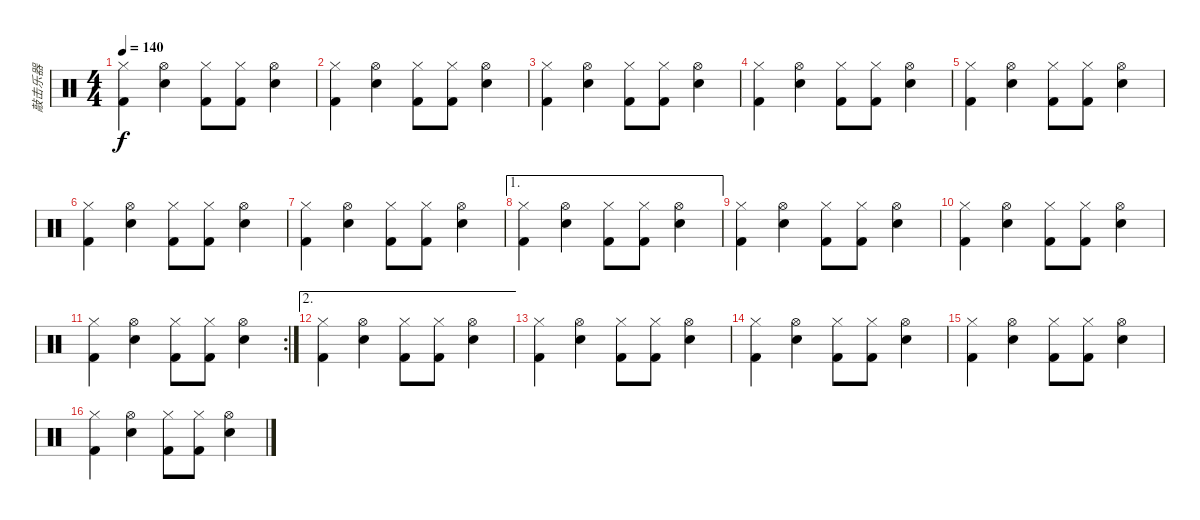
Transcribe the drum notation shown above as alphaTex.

\track ("敲击乐器" "敲击乐器") {instrument percussion}
\staff {score}
\articulation defaults
\ts (4 4)
\tempo 140
\clef neutral
\ks c
("Hi-Hat (closed)" "Kick (hit) 2").4{dy f} ("Hi-Hat (open)" "Electric Snare (hit)").4 ("Hi-Hat (closed)" "Kick (hit) 2").8 ("Hi-Hat (closed)" "Kick (hit) 2").8 ("Hi-Hat (open)" "Electric Snare (hit)").4 |
("Hi-Hat (closed)" "Kick (hit) 2").4 ("Hi-Hat (open)" "Electric Snare (hit)").4 ("Hi-Hat (closed)" "Kick (hit) 2").8 ("Hi-Hat (closed)" "Kick (hit) 2").8 ("Hi-Hat (open)" "Electric Snare (hit)").4 |
("Hi-Hat (closed)" "Kick (hit) 2").4 ("Hi-Hat (open)" "Electric Snare (hit)").4 ("Hi-Hat (closed)" "Kick (hit) 2").8 ("Hi-Hat (closed)" "Kick (hit) 2").8 ("Hi-Hat (open)" "Electric Snare (hit)").4 |
("Hi-Hat (closed)" "Kick (hit) 2").4 ("Hi-Hat (open)" "Electric Snare (hit)").4 ("Hi-Hat (closed)" "Kick (hit) 2").8 ("Hi-Hat (closed)" "Kick (hit) 2").8 ("Hi-Hat (open)" "Electric Snare (hit)").4 |
("Hi-Hat (closed)" "Kick (hit) 2").4 ("Hi-Hat (open)" "Electric Snare (hit)").4 ("Hi-Hat (closed)" "Kick (hit) 2").8 ("Hi-Hat (closed)" "Kick (hit) 2").8 ("Hi-Hat (open)" "Electric Snare (hit)").4 |
("Hi-Hat (closed)" "Kick (hit) 2").4 ("Hi-Hat (open)" "Electric Snare (hit)").4 ("Hi-Hat (closed)" "Kick (hit) 2").8 ("Hi-Hat (closed)" "Kick (hit) 2").8 ("Hi-Hat (open)" "Electric Snare (hit)").4 |
("Hi-Hat (closed)" "Kick (hit) 2").4 ("Hi-Hat (open)" "Electric Snare (hit)").4 ("Hi-Hat (closed)" "Kick (hit) 2").8 ("Hi-Hat (closed)" "Kick (hit) 2").8 ("Hi-Hat (open)" "Electric Snare (hit)").4 |
\ae 1
("Hi-Hat (closed)" "Kick (hit) 2").4 ("Hi-Hat (open)" "Electric Snare (hit)").4 ("Hi-Hat (closed)" "Kick (hit) 2").8 ("Hi-Hat (closed)" "Kick (hit) 2").8 ("Hi-Hat (open)" "Electric Snare (hit)").4 |
("Hi-Hat (closed)" "Kick (hit) 2").4 ("Hi-Hat (open)" "Electric Snare (hit)").4 ("Hi-Hat (closed)" "Kick (hit) 2").8 ("Hi-Hat (closed)" "Kick (hit) 2").8 ("Hi-Hat (open)" "Electric Snare (hit)").4 |
("Hi-Hat (closed)" "Kick (hit) 2").4 ("Hi-Hat (open)" "Electric Snare (hit)").4 ("Hi-Hat (closed)" "Kick (hit) 2").8 ("Hi-Hat (closed)" "Kick (hit) 2").8 ("Hi-Hat (open)" "Electric Snare (hit)").4 |
\rc 2
("Hi-Hat (closed)" "Kick (hit) 2").4 ("Hi-Hat (open)" "Electric Snare (hit)").4 ("Hi-Hat (closed)" "Kick (hit) 2").8 ("Hi-Hat (closed)" "Kick (hit) 2").8 ("Hi-Hat (open)" "Electric Snare (hit)").4 |
\ae 2
("Hi-Hat (closed)" "Kick (hit) 2").4 ("Hi-Hat (open)" "Electric Snare (hit)").4 ("Hi-Hat (closed)" "Kick (hit) 2").8 ("Hi-Hat (closed)" "Kick (hit) 2").8 ("Hi-Hat (open)" "Electric Snare (hit)").4 |
("Hi-Hat (closed)" "Kick (hit) 2").4 ("Hi-Hat (open)" "Electric Snare (hit)").4 ("Hi-Hat (closed)" "Kick (hit) 2").8 ("Hi-Hat (closed)" "Kick (hit) 2").8 ("Hi-Hat (open)" "Electric Snare (hit)").4 |
("Hi-Hat (closed)" "Kick (hit) 2").4 ("Hi-Hat (open)" "Electric Snare (hit)").4 ("Hi-Hat (closed)" "Kick (hit) 2").8 ("Hi-Hat (closed)" "Kick (hit) 2").8 ("Hi-Hat (open)" "Electric Snare (hit)").4 |
("Hi-Hat (closed)" "Kick (hit) 2").4 ("Hi-Hat (open)" "Electric Snare (hit)").4 ("Hi-Hat (closed)" "Kick (hit) 2").8 ("Hi-Hat (closed)" "Kick (hit) 2").8 ("Hi-Hat (open)" "Electric Snare (hit)").4 |
("Hi-Hat (closed)" "Kick (hit) 2").4 ("Hi-Hat (open)" "Electric Snare (hit)").4 ("Hi-Hat (closed)" "Kick (hit) 2").8 ("Hi-Hat (closed)" "Kick (hit) 2").8 ("Hi-Hat (open)" "Electric Snare (hit)").4
